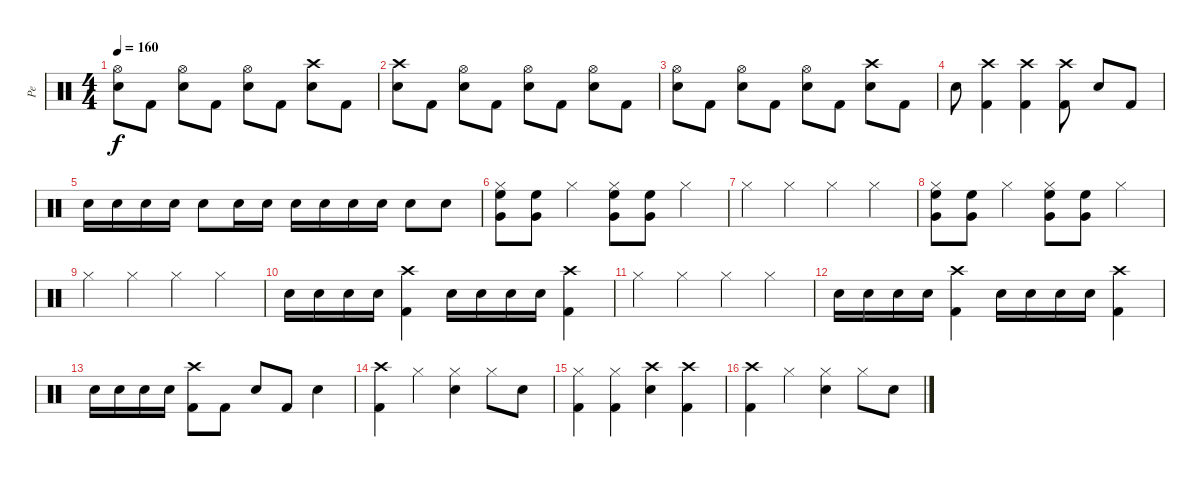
\track ("Pe" "Pe") {instrument percussion}
\staff {score}
\articulation defaults
\ts (4 4)
\tempo 160
\clef neutral
\ks c
("Hi-Hat (open)" "Snare (hit) 2").8{dy f} "Kick (hit) 2".8 ("Hi-Hat (open)" "Snare (hit) 2").8 "Kick (hit) 2".8 ("Hi-Hat (open)" "Snare (hit) 2").8 "Kick (hit) 2".8 ("Crash high (hit)" "Snare (hit) 2").8 "Kick (hit) 2".8 |
("Crash high (hit)" "Snare (hit) 2").8 "Kick (hit) 2".8 ("Hi-Hat (open)" "Snare (hit) 2").8 "Kick (hit) 2".8 ("Hi-Hat (open)" "Snare (hit) 2").8 "Kick (hit) 2".8 ("Hi-Hat (open)" "Snare (hit) 2").8 "Kick (hit) 2".8 |
("Hi-Hat (open)" "Snare (hit) 2").8 "Kick (hit) 2".8 ("Hi-Hat (open)" "Snare (hit) 2").8 "Kick (hit) 2".8 ("Hi-Hat (open)" "Snare (hit) 2").8 "Kick (hit) 2".8 ("Crash high (hit)" "Snare (hit) 2").8 "Kick (hit) 2".8 |
"Snare (hit) 2".8 ("Crash high (hit)" "Kick (hit) 2").4 ("Crash high (hit)" "Kick (hit) 2").4 ("Kick (hit) 2" "Crash high (hit)").8 "Snare (hit) 2".8 "Kick (hit) 2".8 |
"Snare (hit) 2".16 "Snare (hit) 2".16 "Snare (hit) 2".16 "Snare (hit) 2".16 "Snare (hit) 2".8 "Snare (hit) 2".16 "Snare (hit) 2".16 "Snare (hit) 2".16 "Snare (hit) 2".16 "Snare (hit) 2".16 "Snare (hit) 2".16 "Snare (hit) 2".8 "Snare (hit) 2".8 |
("Very Low Tom (hit)" "High Floor Tom (hit)" "Hi-Hat (closed)").8 ("Very Low Tom (hit)" "High Floor Tom (hit)").8 "Hi-Hat (closed)".4 ("Very Low Tom (hit)" "High Floor Tom (hit)" "Hi-Hat (closed)").8 ("Very Low Tom (hit)" "High Floor Tom (hit)").8 "Hi-Hat (closed)".4 |
"Hi-Hat (closed)".4 "Hi-Hat (closed)".4 "Hi-Hat (closed)".4 "Hi-Hat (closed)".4 |
("Very Low Tom (hit)" "High Floor Tom (hit)" "Hi-Hat (closed)").8 ("Very Low Tom (hit)" "High Floor Tom (hit)").8 "Hi-Hat (closed)".4 ("Very Low Tom (hit)" "High Floor Tom (hit)" "Hi-Hat (closed)").8 ("Very Low Tom (hit)" "High Floor Tom (hit)").8 "Hi-Hat (closed)".4 |
"Hi-Hat (closed)".4 "Hi-Hat (closed)".4 "Hi-Hat (closed)".4 "Hi-Hat (closed)".4 |
"Snare (hit) 2".16 "Snare (hit) 2".16 "Snare (hit) 2".16 "Snare (hit) 2".16 ("Crash high (hit)" "Kick (hit) 2").4 "Snare (hit) 2".16 "Snare (hit) 2".16 "Snare (hit) 2".16 "Snare (hit) 2".16 ("Crash high (hit)" "Kick (hit) 2").4 |
"Hi-Hat (closed)".4 "Hi-Hat (closed)".4 "Hi-Hat (closed)".4 "Hi-Hat (closed)".4 |
"Snare (hit) 2".16 "Snare (hit) 2".16 "Snare (hit) 2".16 "Snare (hit) 2".16 ("Crash high (hit)" "Kick (hit) 2").4 "Snare (hit) 2".16 "Snare (hit) 2".16 "Snare (hit) 2".16 "Snare (hit) 2".16 ("Crash high (hit)" "Kick (hit) 2").4 |
"Snare (hit) 2".16 "Snare (hit) 2".16 "Snare (hit) 2".16 "Snare (hit) 2".16 ("Crash high (hit)" "Kick (hit) 2").8 "Kick (hit) 2".8 "Snare (hit) 2".8 "Kick (hit) 2".8 "Snare (hit) 2".4 |
("Crash high (hit)" "Kick (hit) 2").4 "Hi-Hat (closed)".4 ("Hi-Hat (closed)" "Snare (hit) 2").4 "Hi-Hat (closed)".8 "Snare (hit) 2".8 |
("Hi-Hat (closed)" "Kick (hit) 2").4 ("Hi-Hat (closed)" "Kick (hit) 2").4 ("Crash high (hit)" "Snare (hit) 2").4 ("Crash high (hit)" "Kick (hit) 2").4 |
("Crash high (hit)" "Kick (hit) 2").4 "Hi-Hat (closed)".4 ("Hi-Hat (closed)" "Snare (hit) 2").4 "Hi-Hat (closed)".8 "Snare (hit) 2".8
